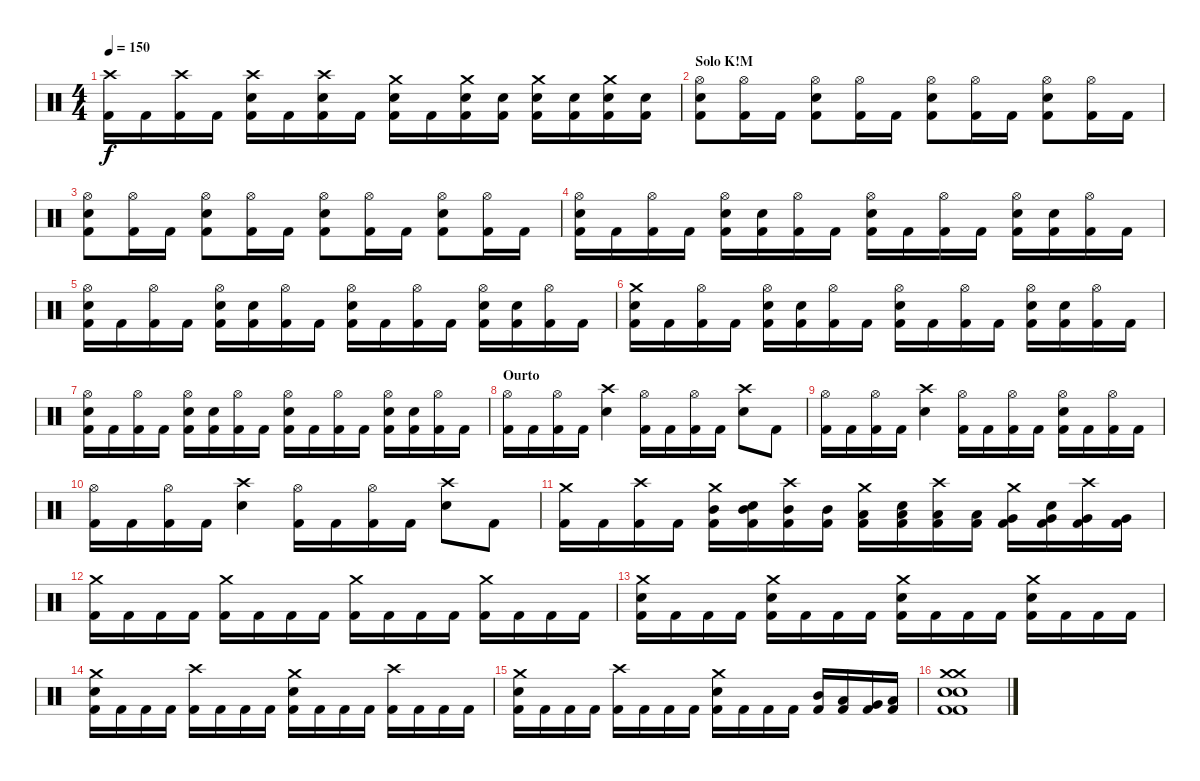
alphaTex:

\track "" {instrument percussion}
\staff {score}
\articulation defaults
\ts (4 4)
\tempo 150
\clef neutral
\ks c
("Crash high (hit)" "Kick (hit) 2").16{dy f} "Kick (hit) 2".16 ("Crash high (hit)" "Kick (hit) 2").16 "Kick (hit) 2".16 ("Crash high (hit)" "Electric Snare (hit)" "Kick (hit) 2").16 "Kick (hit) 2".16 ("Crash high (hit)" "Electric Snare (hit)" "Kick (hit) 2").16 "Kick (hit) 2".16 ("Crash medium (hit)" "Electric Snare (hit)" "Kick (hit) 2").16 "Kick (hit) 2".16 ("Crash medium (hit)" "Electric Snare (hit)" "Kick (hit) 2").16 ("Electric Snare (hit)" "Kick (hit) 2").16 ("Crash medium (hit)" "Electric Snare (hit)" "Kick (hit) 2").16 ("Electric Snare (hit)" "Kick (hit) 2").16 ("Crash medium (hit)" "Electric Snare (hit)" "Kick (hit) 2").16 ("Electric Snare (hit)" "Kick (hit) 2").16 |
\section ("" "Solo K!M")
("Hi-Hat (open)" "Electric Snare (hit)" "Kick (hit) 2").8 ("Hi-Hat (open)" "Kick (hit) 2").16 "Kick (hit) 2".16 ("Hi-Hat (open)" "Electric Snare (hit)" "Kick (hit) 2").8 ("Hi-Hat (open)" "Kick (hit) 2").16 "Kick (hit) 2".16 ("Hi-Hat (open)" "Electric Snare (hit)" "Kick (hit) 2").8 ("Hi-Hat (open)" "Kick (hit) 2").16 "Kick (hit) 2".16 ("Hi-Hat (open)" "Electric Snare (hit)" "Kick (hit) 2").8 ("Hi-Hat (open)" "Kick (hit) 2").16 "Kick (hit) 2".16 |
("Hi-Hat (open)" "Electric Snare (hit)" "Kick (hit) 2").8 ("Hi-Hat (open)" "Kick (hit) 2").16 "Kick (hit) 2".16 ("Hi-Hat (open)" "Electric Snare (hit)" "Kick (hit) 2").8 ("Hi-Hat (open)" "Kick (hit) 2").16 "Kick (hit) 2".16 ("Hi-Hat (open)" "Electric Snare (hit)" "Kick (hit) 2").8 ("Hi-Hat (open)" "Kick (hit) 2").16 "Kick (hit) 2".16 ("Hi-Hat (open)" "Electric Snare (hit)" "Kick (hit) 2").8 ("Hi-Hat (open)" "Kick (hit) 2").16 "Kick (hit) 2".16 |
("Hi-Hat (open)" "Electric Snare (hit)" "Kick (hit) 2").16 "Kick (hit) 2".16 ("Hi-Hat (open)" "Kick (hit) 2").16 "Kick (hit) 2".16 ("Hi-Hat (open)" "Electric Snare (hit)" "Kick (hit) 2").16 ("Electric Snare (hit)" "Kick (hit) 2").16 ("Hi-Hat (open)" "Kick (hit) 2").16 "Kick (hit) 2".16 ("Hi-Hat (open)" "Electric Snare (hit)" "Kick (hit) 2").16 "Kick (hit) 2".16 ("Hi-Hat (open)" "Kick (hit) 2").16 "Kick (hit) 2".16 ("Hi-Hat (open)" "Electric Snare (hit)" "Kick (hit) 2").16 ("Electric Snare (hit)" "Kick (hit) 2").16 ("Hi-Hat (open)" "Kick (hit) 2").16 "Kick (hit) 2".16 |
("Hi-Hat (open)" "Electric Snare (hit)" "Kick (hit) 2").16 "Kick (hit) 2".16 ("Hi-Hat (open)" "Kick (hit) 2").16 "Kick (hit) 2".16 ("Hi-Hat (open)" "Electric Snare (hit)" "Kick (hit) 2").16 ("Electric Snare (hit)" "Kick (hit) 2").16 ("Hi-Hat (open)" "Kick (hit) 2").16 "Kick (hit) 2".16 ("Hi-Hat (open)" "Electric Snare (hit)" "Kick (hit) 2").16 "Kick (hit) 2".16 ("Hi-Hat (open)" "Kick (hit) 2").16 "Kick (hit) 2".16 ("Hi-Hat (open)" "Electric Snare (hit)" "Kick (hit) 2").16 ("Electric Snare (hit)" "Kick (hit) 2").16 ("Hi-Hat (open)" "Kick (hit) 2").16 "Kick (hit) 2".16 |
("Crash medium (hit)" "Electric Snare (hit)" "Kick (hit) 2").16 "Kick (hit) 2".16 ("Hi-Hat (open)" "Kick (hit) 2").16 "Kick (hit) 2".16 ("Hi-Hat (open)" "Electric Snare (hit)" "Kick (hit) 2").16 ("Electric Snare (hit)" "Kick (hit) 2").16 ("Hi-Hat (open)" "Kick (hit) 2").16 "Kick (hit) 2".16 ("Hi-Hat (open)" "Electric Snare (hit)" "Kick (hit) 2").16 "Kick (hit) 2".16 ("Hi-Hat (open)" "Kick (hit) 2").16 "Kick (hit) 2".16 ("Hi-Hat (open)" "Electric Snare (hit)" "Kick (hit) 2").16 ("Electric Snare (hit)" "Kick (hit) 2").16 ("Hi-Hat (open)" "Kick (hit) 2").16 "Kick (hit) 2".16 |
("Hi-Hat (open)" "Electric Snare (hit)" "Kick (hit) 2").16 "Kick (hit) 2".16 ("Hi-Hat (open)" "Kick (hit) 2").16 "Kick (hit) 2".16 ("Hi-Hat (open)" "Electric Snare (hit)" "Kick (hit) 2").16 ("Electric Snare (hit)" "Kick (hit) 2").16 ("Hi-Hat (open)" "Kick (hit) 2").16 "Kick (hit) 2".16 ("Hi-Hat (open)" "Electric Snare (hit)" "Kick (hit) 2").16 "Kick (hit) 2".16 ("Hi-Hat (open)" "Kick (hit) 2").16 "Kick (hit) 2".16 ("Hi-Hat (open)" "Electric Snare (hit)" "Kick (hit) 2").16 ("Electric Snare (hit)" "Kick (hit) 2").16 ("Hi-Hat (open)" "Kick (hit) 2").16 "Kick (hit) 2".16 |
\section ("" "Ourto")
("Hi-Hat (open)" "Kick (hit) 2").16 "Kick (hit) 2".16 ("Hi-Hat (open)" "Kick (hit) 2").16 "Kick (hit) 2".16 ("Crash high (hit)" "Electric Snare (hit)").4 ("Hi-Hat (open)" "Kick (hit) 2").16 "Kick (hit) 2".16 ("Hi-Hat (open)" "Kick (hit) 2").16 "Kick (hit) 2".16 ("Crash high (hit)" "Electric Snare (hit)").8 "Kick (hit) 2".8 |
("Hi-Hat (open)" "Kick (hit) 2").16 "Kick (hit) 2".16 ("Hi-Hat (open)" "Kick (hit) 2").16 "Kick (hit) 2".16 ("Crash high (hit)" "Electric Snare (hit)").4 ("Hi-Hat (open)" "Kick (hit) 2").16 "Kick (hit) 2".16 ("Hi-Hat (open)" "Kick (hit) 2").16 "Kick (hit) 2".16 ("Hi-Hat (open)" "Electric Snare (hit)" "Kick (hit) 2").16 "Kick (hit) 2".16 ("Hi-Hat (open)" "Kick (hit) 2").16 "Kick (hit) 2".16 |
("Hi-Hat (open)" "Kick (hit) 2").16 "Kick (hit) 2".16 ("Hi-Hat (open)" "Kick (hit) 2").16 "Kick (hit) 2".16 ("Crash high (hit)" "Electric Snare (hit)").4 ("Hi-Hat (open)" "Kick (hit) 2").16 "Kick (hit) 2".16 ("Hi-Hat (open)" "Kick (hit) 2").16 "Kick (hit) 2".16 ("Crash high (hit)" "Electric Snare (hit)").8 "Kick (hit) 2".8 |
("Crash medium (hit)" "Kick (hit) 2").16 "Kick (hit) 2".16 ("Crash high (hit)" "Kick (hit) 2").16 "Kick (hit) 2".16 ("Crash medium (hit)" "Mid Tom (hit)" "Kick (hit) 2").16 ("Electric Snare (hit)" "Mid Tom (hit)" "Kick (hit) 2").16 ("Crash high (hit)" "Mid Tom (hit)" "Kick (hit) 2").16 ("Mid Tom (hit)" "Kick (hit) 2").16 ("Crash medium (hit)" "Low Tom (hit)" "Kick (hit) 2").16 ("Electric Snare (hit)" "Low Tom (hit)" "Kick (hit) 2").16 ("Crash high (hit)" "Low Tom (hit)" "Kick (hit) 2").16 ("Low Tom (hit)" "Kick (hit) 2").16 ("Crash medium (hit)" "Very Low Tom (hit)" "Kick (hit) 2").16 ("Electric Snare (hit)" "Very Low Tom (hit)" "Kick (hit) 2").16 ("Crash high (hit)" "Very Low Tom (hit)" "Kick (hit) 2").16 ("Very Low Tom (hit)" "Kick (hit) 2").16 |
("Crash medium (hit)" "Kick (hit) 2").16 "Kick (hit) 2".16 "Kick (hit) 2".16 "Kick (hit) 2".16 ("Crash medium (hit)" "Kick (hit) 2").16 "Kick (hit) 2".16 "Kick (hit) 2".16 "Kick (hit) 2".16 ("Crash medium (hit)" "Kick (hit) 2").16 "Kick (hit) 2".16 "Kick (hit) 2".16 "Kick (hit) 2".16 ("Crash medium (hit)" "Kick (hit) 2").16 "Kick (hit) 2".16 "Kick (hit) 2".16 "Kick (hit) 2".16 |
("Crash medium (hit)" "Electric Snare (hit)" "Kick (hit) 2").16 "Kick (hit) 2".16 "Kick (hit) 2".16 "Kick (hit) 2".16 ("Crash medium (hit)" "Electric Snare (hit)" "Kick (hit) 2").16 "Kick (hit) 2".16 "Kick (hit) 2".16 "Kick (hit) 2".16 ("Crash medium (hit)" "Electric Snare (hit)" "Kick (hit) 2").16 "Kick (hit) 2".16 "Kick (hit) 2".16 "Kick (hit) 2".16 ("Crash medium (hit)" "Electric Snare (hit)" "Kick (hit) 2").16 "Kick (hit) 2".16 "Kick (hit) 2".16 "Kick (hit) 2".16 |
("Crash medium (hit)" "Electric Snare (hit)" "Kick (hit) 2").16 "Kick (hit) 2".16 "Kick (hit) 2".16 "Kick (hit) 2".16 ("Crash high (hit)" "Kick (hit) 2").16 "Kick (hit) 2".16 "Kick (hit) 2".16 "Kick (hit) 2".16 ("Crash medium (hit)" "Electric Snare (hit)" "Kick (hit) 2").16 "Kick (hit) 2".16 "Kick (hit) 2".16 "Kick (hit) 2".16 ("Crash high (hit)" "Kick (hit) 2").16 "Kick (hit) 2".16 "Kick (hit) 2".16 "Kick (hit) 2".16 |
("Crash medium (hit)" "Electric Snare (hit)" "Kick (hit) 2").16 "Kick (hit) 2".16 "Kick (hit) 2".16 "Kick (hit) 2".16 ("Crash high (hit)" "Kick (hit) 2").16 "Kick (hit) 2".16 "Kick (hit) 2".16 "Kick (hit) 2".16 ("Crash medium (hit)" "Electric Snare (hit)" "Kick (hit) 2").16 "Kick (hit) 2".16 "Kick (hit) 2".16 "Kick (hit) 2".16 ("Mid Tom (hit)" "Kick (hit) 2").16 ("Low Tom (hit)" "Kick (hit) 2").16 ("Very Low Tom (hit)" "Kick (hit) 2").16 ("Low Floor Tom (hit)" "Kick (hit) 2").16 |
("Crash medium (hit)" "Crash medium (hit)" "Electric Snare (hit)" "Kick (hit) 2" "Kick (hit) 2" "Electric Snare (hit)").1
